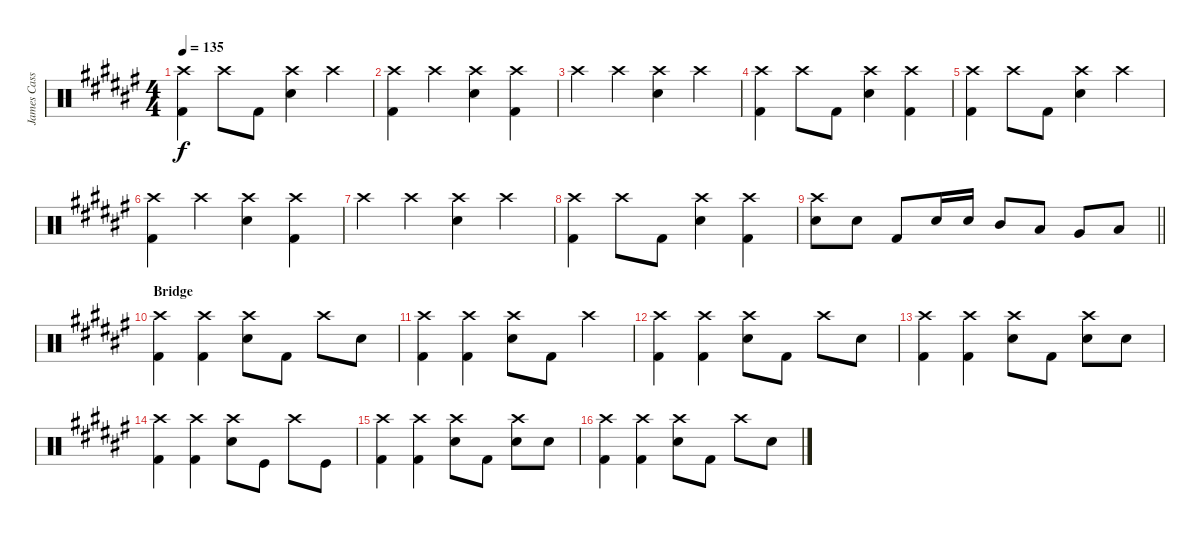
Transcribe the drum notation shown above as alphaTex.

\track ("James Cassells" "James Cass") {instrument percussion}
\staff {score}
\articulation defaults
\ts (4 4)
\tempo 135
\clef neutral
\ks d#minor
("Crash high (hit)" "Kick (hit) 2").4{dy f} "Crash high (hit)".8 "Kick (hit) 2".8 ("Crash high (hit)" "Electric Snare (hit)").4 "Crash high (hit)".4 |
("Crash high (hit)" "Kick (hit) 2").4 "Crash high (hit)".4 ("Crash high (hit)" "Electric Snare (hit)").4 ("Crash high (hit)" "Kick (hit) 2").4 |
"Crash high (hit)".4 "Crash high (hit)".4 ("Crash high (hit)" "Electric Snare (hit)").4 "Crash high (hit)".4 |
("Crash high (hit)" "Kick (hit) 2").4 "Crash high (hit)".8 "Kick (hit) 2".8 ("Crash high (hit)" "Electric Snare (hit)").4 ("Crash high (hit)" "Kick (hit) 2").4 |
("Crash high (hit)" "Kick (hit) 2").4 "Crash high (hit)".8 "Kick (hit) 2".8 ("Crash high (hit)" "Electric Snare (hit)").4 "Crash high (hit)".4 |
("Crash high (hit)" "Kick (hit) 2").4 "Crash high (hit)".4 ("Crash high (hit)" "Electric Snare (hit)").4 ("Crash high (hit)" "Kick (hit) 2").4 |
"Crash high (hit)".4 "Crash high (hit)".4 ("Crash high (hit)" "Electric Snare (hit)").4 "Crash high (hit)".4 |
("Crash high (hit)" "Kick (hit) 2").4 "Crash high (hit)".8 "Kick (hit) 2".8 ("Crash high (hit)" "Electric Snare (hit)").4 ("Crash high (hit)" "Kick (hit) 2").4 |
\barLineRight lightlight
("Crash high (hit)" "Electric Snare (hit)").8 "Electric Snare (hit)".8 "Kick (hit) 2".8 "Electric Snare (hit)".16 "Electric Snare (hit)".16 "Mid Tom (hit)".8 "Low Tom (hit)".8 "Very Low Tom (hit)".8 "Low Floor Tom (hit)".8 |
\section ("" "Bridge")
("Crash high (hit)" "Kick (hit) 2").4 ("Crash high (hit)" "Kick (hit) 2").4 ("Crash high (hit)" "Electric Snare (hit)").8 "Kick (hit) 2".8 "Crash high (hit)".8 "Electric Snare (hit)".8 |
("Crash high (hit)" "Kick (hit) 2").4 ("Crash high (hit)" "Kick (hit) 2").4 ("Crash high (hit)" "Electric Snare (hit)").8 "Kick (hit) 2".8 "Crash high (hit)".4 |
("Crash high (hit)" "Kick (hit) 2").4 ("Crash high (hit)" "Kick (hit) 2").4 ("Crash high (hit)" "Electric Snare (hit)").8 "Kick (hit) 2".8 "Crash high (hit)".8 "Electric Snare (hit)".8 |
("Crash high (hit)" "Kick (hit) 2").4 ("Crash high (hit)" "Kick (hit) 2").4 ("Crash high (hit)" "Electric Snare (hit)").8 "Kick (hit) 2".8 ("Crash high (hit)" "Electric Snare (hit)").8 "Electric Snare (hit)".8 |
("Crash high (hit)" "Kick (hit) 2").4 ("Crash high (hit)" "Kick (hit) 2").4 ("Crash high (hit)" "Electric Snare (hit)").8 "Kick (hit)".8 "Crash high (hit)".8 "Kick (hit)".8 |
("Crash high (hit)" "Kick (hit) 2").4 ("Crash high (hit)" "Kick (hit) 2").4 ("Crash high (hit)" "Electric Snare (hit)").8 "Kick (hit) 2".8 ("Crash high (hit)" "Electric Snare (hit)").8 "Electric Snare (hit)".8 |
("Crash high (hit)" "Kick (hit) 2").4 ("Crash high (hit)" "Kick (hit) 2").4 ("Crash high (hit)" "Electric Snare (hit)").8 "Kick (hit) 2".8 "Crash high (hit)".8 "Electric Snare (hit)".8
